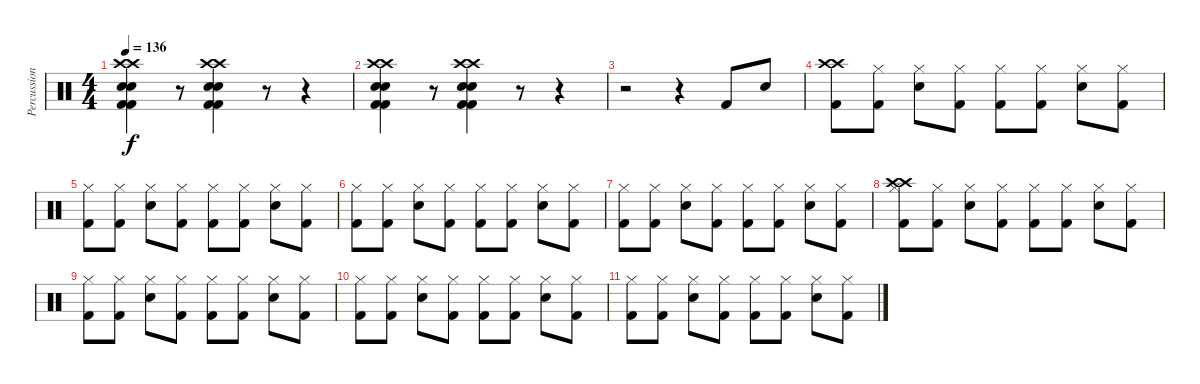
\track ("Percussion" "Percussion") {instrument percussion}
\staff {score}
\articulation defaults
\ts (4 4)
\tempo 136
\clef neutral
\ks c
("Crash high (hit)" "Crash high (hit)" "Snare (hit) 2" "Snare (hit) 2" "Kick (hit) 2" "Kick (hit) 2").4{dy f} r.8 ("Crash high (hit)" "Crash high (hit)" "Snare (hit) 2" "Snare (hit) 2" "Kick (hit) 2" "Kick (hit) 2").4 r.8 r.4 |
("Crash high (hit)" "Crash high (hit)" "Snare (hit) 2" "Snare (hit) 2" "Kick (hit) 2" "Kick (hit) 2").4 r.8 ("Crash high (hit)" "Crash high (hit)" "Snare (hit) 2" "Snare (hit) 2" "Kick (hit) 2" "Kick (hit) 2").4 r.8 r.4 |
r.2 r.4 "Kick (hit) 2".8 "Snare (hit) 2".8 |
("Crash high (hit)" "Crash high (hit)" "Kick (hit) 2").8 ("Hi-Hat (closed)" "Kick (hit) 2").8 ("Hi-Hat (closed)" "Electric Snare (hit)").8 ("Hi-Hat (closed)" "Kick (hit) 2").8 ("Hi-Hat (closed)" "Kick (hit) 2").8 ("Hi-Hat (closed)" "Kick (hit) 2").8 ("Hi-Hat (closed)" "Electric Snare (hit)").8 ("Hi-Hat (closed)" "Kick (hit) 2").8 |
("Hi-Hat (closed)" "Kick (hit) 2").8 ("Hi-Hat (closed)" "Kick (hit) 2").8 ("Hi-Hat (closed)" "Electric Snare (hit)").8 ("Hi-Hat (closed)" "Kick (hit) 2").8 ("Hi-Hat (closed)" "Kick (hit) 2").8 ("Hi-Hat (closed)" "Kick (hit) 2").8 ("Hi-Hat (closed)" "Electric Snare (hit)").8 ("Hi-Hat (closed)" "Kick (hit) 2").8 |
("Hi-Hat (closed)" "Kick (hit) 2").8 ("Hi-Hat (closed)" "Kick (hit) 2").8 ("Hi-Hat (closed)" "Electric Snare (hit)").8 ("Hi-Hat (closed)" "Kick (hit) 2").8 ("Hi-Hat (closed)" "Kick (hit) 2").8 ("Hi-Hat (closed)" "Kick (hit) 2").8 ("Hi-Hat (closed)" "Electric Snare (hit)").8 ("Hi-Hat (closed)" "Kick (hit) 2").8 |
("Hi-Hat (closed)" "Kick (hit) 2").8 ("Hi-Hat (closed)" "Kick (hit) 2").8 ("Hi-Hat (closed)" "Electric Snare (hit)").8 ("Hi-Hat (closed)" "Kick (hit) 2").8 ("Hi-Hat (closed)" "Kick (hit) 2").8 ("Hi-Hat (closed)" "Kick (hit) 2").8 ("Hi-Hat (closed)" "Electric Snare (hit)").8 ("Hi-Hat (closed)" "Kick (hit) 2").8 |
("Crash high (hit)" "Crash high (hit)" "Hi-Hat (closed)" "Kick (hit) 2").8 ("Hi-Hat (closed)" "Kick (hit) 2").8 ("Hi-Hat (closed)" "Electric Snare (hit)").8 ("Hi-Hat (closed)" "Kick (hit) 2").8 ("Hi-Hat (closed)" "Kick (hit) 2").8 ("Hi-Hat (closed)" "Kick (hit) 2").8 ("Hi-Hat (closed)" "Electric Snare (hit)").8 ("Hi-Hat (closed)" "Kick (hit) 2").8 |
("Hi-Hat (closed)" "Kick (hit) 2").8 ("Hi-Hat (closed)" "Kick (hit) 2").8 ("Hi-Hat (closed)" "Electric Snare (hit)").8 ("Hi-Hat (closed)" "Kick (hit) 2").8 ("Hi-Hat (closed)" "Kick (hit) 2").8 ("Hi-Hat (closed)" "Kick (hit) 2").8 ("Hi-Hat (closed)" "Electric Snare (hit)").8 ("Hi-Hat (closed)" "Kick (hit) 2").8 |
("Hi-Hat (closed)" "Kick (hit) 2").8 ("Hi-Hat (closed)" "Kick (hit) 2").8 ("Hi-Hat (closed)" "Electric Snare (hit)").8 ("Hi-Hat (closed)" "Kick (hit) 2").8 ("Hi-Hat (closed)" "Kick (hit) 2").8 ("Hi-Hat (closed)" "Kick (hit) 2").8 ("Hi-Hat (closed)" "Electric Snare (hit)").8 ("Hi-Hat (closed)" "Kick (hit) 2").8 |
("Hi-Hat (closed)" "Kick (hit) 2").8 ("Hi-Hat (closed)" "Kick (hit) 2").8 ("Hi-Hat (closed)" "Electric Snare (hit)").8 ("Hi-Hat (closed)" "Kick (hit) 2").8 ("Hi-Hat (closed)" "Kick (hit) 2").8 ("Hi-Hat (closed)" "Kick (hit) 2").8 ("Hi-Hat (closed)" "Electric Snare (hit)").8 ("Hi-Hat (closed)" "Kick (hit) 2").8
